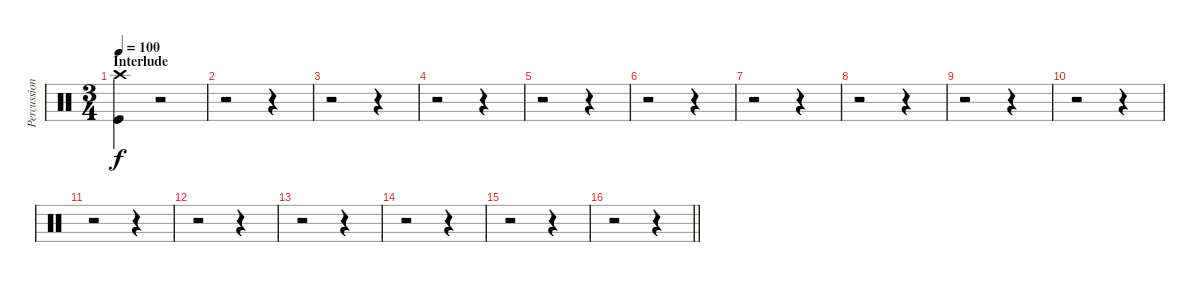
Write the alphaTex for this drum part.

\track ("Percussion" "Percussion") {instrument percussion}
\staff {score}
\articulation defaults
\ts (3 4)
\section ("" "Interlude")
\tempo 100
\clef neutral
\ks aminor
("Crash high (hit)" "Kick (hit)").4{dy f} r.2 |
r.2 r.4 |
r.2 r.4 |
r.2 r.4 |
r.2 r.4 |
r.2 r.4 |
r.2 r.4 |
r.2 r.4 |
r.2 r.4 |
r.2 r.4 |
r.2 r.4 |
r.2 r.4 |
r.2 r.4 |
r.2 r.4 |
r.2 r.4 |
\barLineRight lightlight
r.2 r.4
